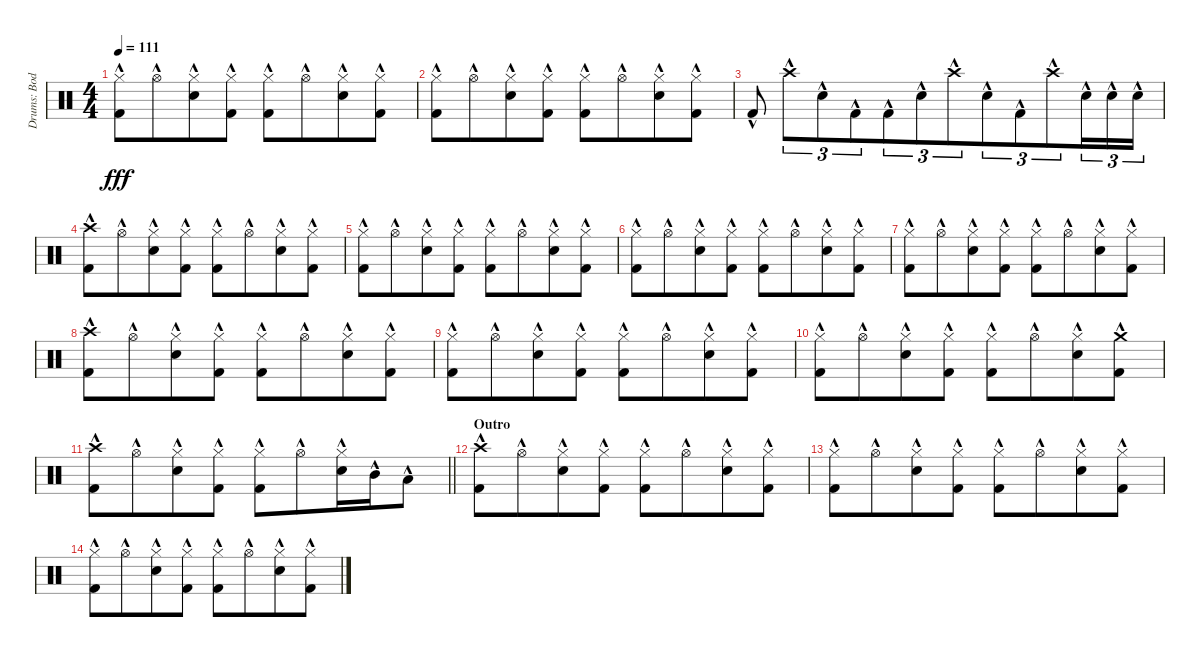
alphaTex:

\track ("Drums: Bodo" "Drums: Bod") {instrument percussion}
\staff {score}
\articulation defaults
\ts (4 4)
\tempo 111
\clef neutral
\ks c
("Hi-Hat (closed)"{hac} "Kick (hit) 2"{hac}).8{dy fff} "Hi-Hat (open)"{hac}.8{beam merge} ("Hi-Hat (closed)"{hac} "Electric Snare (hit)"{hac}).8 ("Hi-Hat (closed)"{hac} "Kick (hit) 2"{hac}).8 ("Hi-Hat (closed)"{hac} "Kick (hit) 2"{hac}).8 "Hi-Hat (open)"{hac}.8{beam merge} ("Hi-Hat (closed)"{hac} "Electric Snare (hit)"{hac}).8 ("Hi-Hat (closed)"{hac} "Kick (hit) 2"{hac}).8 |
("Hi-Hat (closed)"{hac} "Kick (hit) 2"{hac}).8 "Hi-Hat (open)"{hac}.8{beam merge} ("Hi-Hat (closed)"{hac} "Electric Snare (hit)"{hac}).8 ("Hi-Hat (closed)"{hac} "Kick (hit) 2"{hac}).8 ("Hi-Hat (closed)"{hac} "Kick (hit) 2"{hac}).8 "Hi-Hat (open)"{hac}.8{beam merge} ("Hi-Hat (closed)"{hac} "Electric Snare (hit)"{hac}).8 ("Hi-Hat (closed)"{hac} "Kick (hit) 2"{hac}).8 |
"Kick (hit) 2"{hac}.8 "Crash high (hit)"{hac}.8{tu (3 2) beam merge} "Electric Snare (hit)"{hac}.8{tu (3 2)} "Kick (hit) 2"{hac}.8{tu (3 2) beam merge} "Kick (hit) 2"{hac}.8{tu (3 2) beam merge} "Electric Snare (hit)"{hac}.8{tu (3 2)} "Crash high (hit)"{hac}.8{tu (3 2) beam merge} "Electric Snare (hit)"{hac}.8{tu (3 2)} "Kick (hit) 2"{hac}.8{tu (3 2) beam merge} "Crash high (hit)"{hac}.8{tu (3 2) beam merge} "Electric Snare (hit)"{hac}.16{tu (3 2) beam merge} "Electric Snare (hit)"{hac}.16{tu (3 2) beam merge} "Electric Snare (hit)"{hac}.16{tu (3 2)} |
("Crash high (hit)"{hac} "Kick (hit) 2"{hac}).8 "Hi-Hat (open)"{hac}.8{beam merge} ("Hi-Hat (closed)"{hac} "Electric Snare (hit)"{hac}).8 ("Hi-Hat (closed)"{hac} "Kick (hit) 2"{hac}).8 ("Hi-Hat (closed)"{hac} "Kick (hit) 2"{hac}).8 "Hi-Hat (open)"{hac}.8{beam merge} ("Hi-Hat (closed)"{hac} "Electric Snare (hit)"{hac}).8 ("Hi-Hat (closed)"{hac} "Kick (hit) 2"{hac}).8 |
("Hi-Hat (closed)"{hac} "Kick (hit) 2"{hac}).8 "Hi-Hat (open)"{hac}.8{beam merge} ("Hi-Hat (closed)"{hac} "Electric Snare (hit)"{hac}).8 ("Hi-Hat (closed)"{hac} "Kick (hit) 2"{hac}).8 ("Hi-Hat (closed)"{hac} "Kick (hit) 2"{hac}).8 "Hi-Hat (open)"{hac}.8{beam merge} ("Hi-Hat (closed)"{hac} "Electric Snare (hit)"{hac}).8 ("Hi-Hat (closed)"{hac} "Kick (hit) 2"{hac}).8 |
("Hi-Hat (closed)"{hac} "Kick (hit) 2"{hac}).8 "Hi-Hat (open)"{hac}.8{beam merge} ("Hi-Hat (closed)"{hac} "Electric Snare (hit)"{hac}).8 ("Hi-Hat (closed)"{hac} "Kick (hit) 2"{hac}).8 ("Hi-Hat (closed)"{hac} "Kick (hit) 2"{hac}).8 "Hi-Hat (open)"{hac}.8{beam merge} ("Hi-Hat (closed)"{hac} "Electric Snare (hit)"{hac}).8 ("Hi-Hat (closed)"{hac} "Kick (hit) 2"{hac}).8 |
("Hi-Hat (closed)"{hac} "Kick (hit) 2"{hac}).8 "Hi-Hat (open)"{hac}.8{beam merge} ("Hi-Hat (closed)"{hac} "Electric Snare (hit)"{hac}).8 ("Hi-Hat (closed)"{hac} "Kick (hit) 2"{hac}).8 ("Hi-Hat (closed)"{hac} "Kick (hit) 2"{hac}).8 "Hi-Hat (open)"{hac}.8{beam merge} ("Hi-Hat (closed)"{hac} "Electric Snare (hit)"{hac}).8 ("Hi-Hat (closed)"{hac} "Kick (hit) 2"{hac}).8 |
("Crash high (hit)"{hac} "Kick (hit) 2"{hac}).8 "Hi-Hat (open)"{hac}.8{beam merge} ("Hi-Hat (closed)"{hac} "Electric Snare (hit)"{hac}).8 ("Hi-Hat (closed)"{hac} "Kick (hit) 2"{hac}).8 ("Hi-Hat (closed)"{hac} "Kick (hit) 2"{hac}).8 "Hi-Hat (open)"{hac}.8{beam merge} ("Hi-Hat (closed)"{hac} "Electric Snare (hit)"{hac}).8 ("Hi-Hat (closed)"{hac} "Kick (hit) 2"{hac}).8 |
("Hi-Hat (closed)"{hac} "Kick (hit) 2"{hac}).8 "Hi-Hat (open)"{hac}.8{beam merge} ("Hi-Hat (closed)"{hac} "Electric Snare (hit)"{hac}).8 ("Hi-Hat (closed)"{hac} "Kick (hit) 2"{hac}).8 ("Hi-Hat (closed)"{hac} "Kick (hit) 2"{hac}).8 "Hi-Hat (open)"{hac}.8{beam merge} ("Hi-Hat (closed)"{hac} "Electric Snare (hit)"{hac}).8 ("Hi-Hat (closed)"{hac} "Kick (hit) 2"{hac}).8 |
("Hi-Hat (closed)"{hac} "Kick (hit) 2"{hac}).8 "Hi-Hat (open)"{hac}.8{beam merge} ("Hi-Hat (closed)"{hac} "Electric Snare (hit)"{hac}).8 ("Hi-Hat (closed)"{hac} "Kick (hit) 2"{hac}).8 ("Hi-Hat (closed)"{hac} "Kick (hit) 2"{hac}).8 "Hi-Hat (open)"{hac}.8{beam merge} ("Hi-Hat (closed)"{hac} "Electric Snare (hit)"{hac}).8 ("Crash medium (hit)"{hac} "Kick (hit) 2"{hac}).8 |
\barLineRight lightlight
("Crash high (hit)"{hac} "Kick (hit) 2"{hac}).8 "Hi-Hat (open)"{hac}.8{beam merge} ("Hi-Hat (closed)"{hac} "Electric Snare (hit)"{hac}).8 ("Hi-Hat (closed)"{hac} "Kick (hit) 2"{hac}).8 ("Hi-Hat (closed)"{hac} "Kick (hit) 2"{hac}).8 "Hi-Hat (open)"{hac}.8{beam merge} ("Hi-Hat (closed)"{hac} "Electric Snare (hit)"{hac}).16 "Mid Tom (hit)"{hac}.16 "Low Tom (hit)"{hac}.8 |
\section ("" "Outro")
("Crash high (hit)"{hac} "Kick (hit) 2"{hac}).8 "Hi-Hat (open)"{hac}.8{beam merge} ("Hi-Hat (closed)"{hac} "Electric Snare (hit)"{hac}).8 ("Hi-Hat (closed)"{hac} "Kick (hit) 2"{hac}).8 ("Hi-Hat (closed)"{hac} "Kick (hit) 2"{hac}).8 "Hi-Hat (open)"{hac}.8{beam merge} ("Hi-Hat (closed)"{hac} "Electric Snare (hit)"{hac}).8 ("Hi-Hat (closed)"{hac} "Kick (hit) 2"{hac}).8 |
("Hi-Hat (closed)"{hac} "Kick (hit) 2"{hac}).8 "Hi-Hat (open)"{hac}.8{beam merge} ("Hi-Hat (closed)"{hac} "Electric Snare (hit)"{hac}).8 ("Hi-Hat (closed)"{hac} "Kick (hit) 2"{hac}).8 ("Hi-Hat (closed)"{hac} "Kick (hit) 2"{hac}).8 "Hi-Hat (open)"{hac}.8{beam merge} ("Hi-Hat (closed)"{hac} "Electric Snare (hit)"{hac}).8 ("Hi-Hat (closed)"{hac} "Kick (hit) 2"{hac}).8 |
("Hi-Hat (closed)"{hac} "Kick (hit) 2"{hac}).8 "Hi-Hat (open)"{hac}.8{beam merge} ("Hi-Hat (closed)"{hac} "Electric Snare (hit)"{hac}).8 ("Hi-Hat (closed)"{hac} "Kick (hit) 2"{hac}).8 ("Hi-Hat (closed)"{hac} "Kick (hit) 2"{hac}).8 "Hi-Hat (open)"{hac}.8{beam merge} ("Hi-Hat (closed)"{hac} "Electric Snare (hit)"{hac}).8 ("Hi-Hat (closed)"{hac} "Kick (hit) 2"{hac}).8
